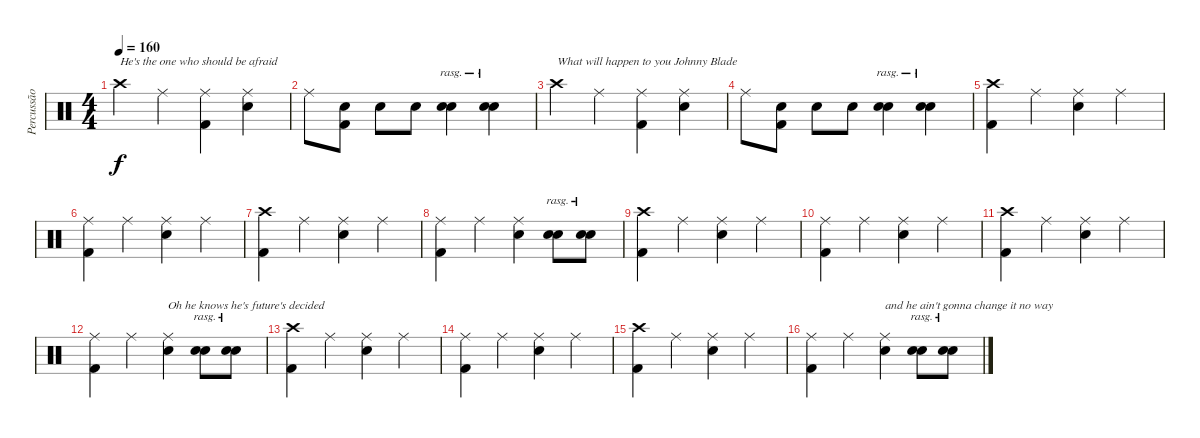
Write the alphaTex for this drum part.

\track ("Percussão" "Percussão") {instrument percussion}
\staff {score}
\articulation defaults
\ts (4 4)
\tempo 160
\clef neutral
\ks c "Crash high (hit)".4{txt "He's the one who should be afraid" dy f} "Ride (middle)".4
("Ride (middle)" "Kick (hit) 2").4 ("Ride (middle)" "Snare (hit) 2").4 |
"Ride (middle)".8 ("Snare (hit) 2" "Kick (hit) 2").8 "Snare (hit) 2".8 "Snare (hit) 2".8 ("Snare (hit) 2" "Snare (hit) 2").4{bd 240 rasg ii} ("Snare (hit) 2" "Snare (hit) 2").4{bu 120 rasg ii} |
"Crash high (hit)".4{txt "What will happen to you Johnny Blade"} "Ride (middle)".4 ("Ride (middle)" "Kick (hit) 2").4 ("Ride (middle)" "Snare (hit) 2").4 |
"Ride (middle)".8 ("Snare (hit) 2" "Kick (hit) 2").8 "Snare (hit) 2".8 "Snare (hit) 2".8 ("Snare (hit) 2" "Snare (hit) 2").4{bd 240 rasg ii} ("Snare (hit) 2" "Snare (hit) 2").4{bu 120 rasg ii} |
("Crash high (hit)" "Kick (hit) 2").4 "Ride (middle)".4 ("Ride (middle)" "Snare (hit) 2").4 "Ride (middle)".4 |
("Ride (middle)" "Kick (hit) 2").4 "Ride (middle)".4 ("Ride (middle)" "Snare (hit) 2").4 "Ride (middle)".4 |
("Crash high (hit)" "Kick (hit) 2").4 "Ride (middle)".4 ("Ride (middle)" "Snare (hit) 2").4 "Ride (middle)".4 |
("Ride (middle)" "Kick (hit) 2").4 "Ride (middle)".4 ("Ride (middle)" "Snare (hit) 2").4 ("Snare (hit) 2" "Snare (hit) 2").8{bu 240 rasg ii} ("Snare (hit) 2" "Snare (hit) 2").8{bu 240 rasg ii} |
("Crash high (hit)" "Kick (hit) 2").4 "Ride (middle)".4 ("Ride (middle)" "Snare (hit) 2").4 "Ride (middle)".4 |
("Ride (middle)" "Kick (hit) 2").4 "Ride (middle)".4 ("Ride (middle)" "Snare (hit) 2").4 "Ride (middle)".4 |
("Crash high (hit)" "Kick (hit) 2").4 "Ride (middle)".4 ("Ride (middle)" "Snare (hit) 2").4 "Ride (middle)".4 |
("Ride (middle)" "Kick (hit) 2").4 "Ride (middle)".4 ("Ride (middle)" "Snare (hit) 2").4{txt "Oh he knows he's future's decided"} ("Snare (hit) 2" "Snare (hit) 2").8{bu 240 rasg ii} ("Snare (hit) 2" "Snare (hit) 2").8{bu 240 rasg ii} |
("Crash high (hit)" "Kick (hit) 2").4 "Ride (middle)".4 ("Ride (middle)" "Snare (hit) 2").4 "Ride (middle)".4 |
("Ride (middle)" "Kick (hit) 2").4 "Ride (middle)".4 ("Ride (middle)" "Snare (hit) 2").4 "Ride (middle)".4 |
("Crash high (hit)" "Kick (hit) 2").4 "Ride (middle)".4 ("Ride (middle)" "Snare (hit) 2").4 "Ride (middle)".4 |
("Ride (middle)" "Kick (hit) 2").4 "Ride (middle)".4 ("Ride (middle)" "Snare (hit) 2").4{txt "and he ain't gonna change it no way"} ("Snare (hit) 2" "Snare (hit) 2").8{bu 240 rasg ii} ("Snare (hit) 2" "Snare (hit) 2").8{bu 240 rasg ii}
